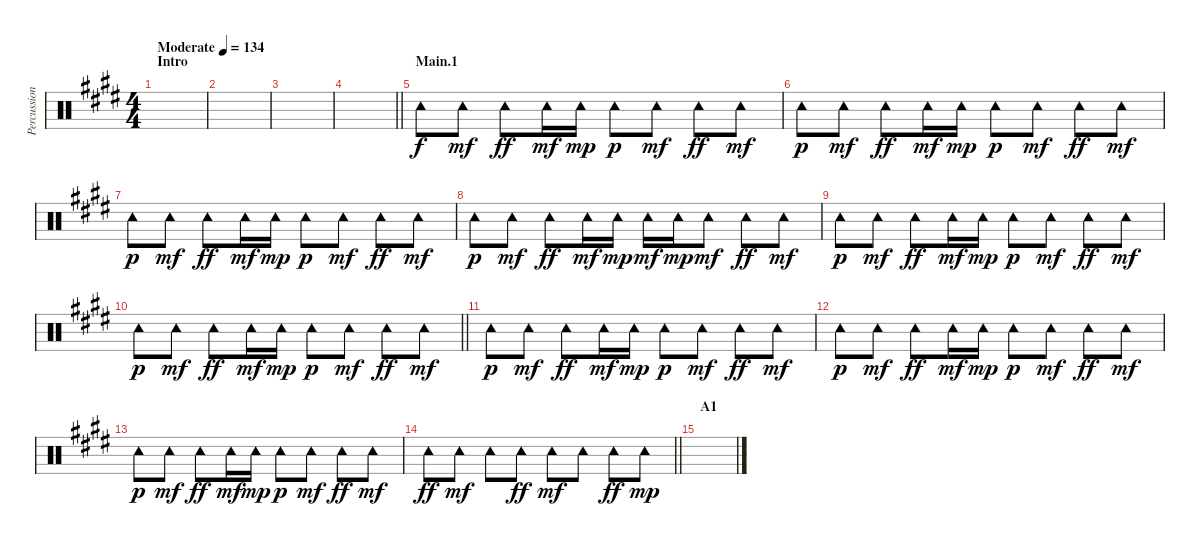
\track ("Percussion" "Percussion") {instrument percussion}
\staff {score}
\articulation defaults
\ts (4 4)
\section ("" "Intro")
\tempo (134 "Moderate")
\clef neutral
\ks e
|
|
|
\barLineRight lightlight
|
\section ("" "Main.1")
"Tambourine (hit)".8 "Tambourine (hit)".8{dy mf} "Tambourine (hit)".8{dy ff} "Tambourine (hit)".16{dy mf} "Tambourine (hit)".16{dy mp} "Tambourine (hit)".8{dy p} "Tambourine (hit)".8{dy mf} "Tambourine (hit)".8{dy ff} "Tambourine (hit)".8{dy mf} |
"Tambourine (hit)".8{dy p} "Tambourine (hit)".8{dy mf} "Tambourine (hit)".8{dy ff} "Tambourine (hit)".16{dy mf} "Tambourine (hit)".16{dy mp} "Tambourine (hit)".8{dy p} "Tambourine (hit)".8{dy mf} "Tambourine (hit)".8{dy ff} "Tambourine (hit)".8{dy mf} |
"Tambourine (hit)".8{dy p} "Tambourine (hit)".8{dy mf} "Tambourine (hit)".8{dy ff} "Tambourine (hit)".16{dy mf} "Tambourine (hit)".16{dy mp} "Tambourine (hit)".8{dy p} "Tambourine (hit)".8{dy mf} "Tambourine (hit)".8{dy ff} "Tambourine (hit)".8{dy mf} |
"Tambourine (hit)".8{dy p} "Tambourine (hit)".8{dy mf} "Tambourine (hit)".8{dy ff} "Tambourine (hit)".16{dy mf} "Tambourine (hit)".16{dy mp} "Tambourine (hit)".16{dy mf} "Tambourine (hit)".16{dy mp} "Tambourine (hit)".8{dy mf} "Tambourine (hit)".8{dy ff} "Tambourine (hit)".8{dy mf} |
"Tambourine (hit)".8{dy p} "Tambourine (hit)".8{dy mf} "Tambourine (hit)".8{dy ff} "Tambourine (hit)".16{dy mf} "Tambourine (hit)".16{dy mp} "Tambourine (hit)".8{dy p} "Tambourine (hit)".8{dy mf} "Tambourine (hit)".8{dy ff} "Tambourine (hit)".8{dy mf} |
\barLineRight lightlight "Tambourine (hit)".8{dy p} "Tambourine (hit)".8{dy mf} "Tambourine (hit)".8{dy ff} "Tambourine (hit)".16{dy mf} "Tambourine (hit)".16{dy mp} "Tambourine (hit)".8{dy p} "Tambourine (hit)".8{dy mf} "Tambourine (hit)".8{dy ff} "Tambourine (hit)".8{dy mf}
|
"Tambourine (hit)".8{dy p} "Tambourine (hit)".8{dy mf} "Tambourine (hit)".8{dy ff} "Tambourine (hit)".16{dy mf} "Tambourine (hit)".16{dy mp} "Tambourine (hit)".8{dy p} "Tambourine (hit)".8{dy mf} "Tambourine (hit)".8{dy ff} "Tambourine (hit)".8{dy mf} |
"Tambourine (hit)".8{dy p} "Tambourine (hit)".8{dy mf} "Tambourine (hit)".8{dy ff} "Tambourine (hit)".16{dy mf} "Tambourine (hit)".16{dy mp} "Tambourine (hit)".8{dy p} "Tambourine (hit)".8{dy mf} "Tambourine (hit)".8{dy ff} "Tambourine (hit)".8{dy mf} |
"Tambourine (hit)".8{dy p} "Tambourine (hit)".8{dy mf} "Tambourine (hit)".8{dy ff} "Tambourine (hit)".16{dy mf} "Tambourine (hit)".16{dy mp} "Tambourine (hit)".8{dy p} "Tambourine (hit)".8{dy mf} "Tambourine (hit)".8{dy ff} "Tambourine (hit)".8{dy mf} |
\barLineRight lightlight "Tambourine (hit)".8{dy ff} "Tambourine (hit)".8{dy mf} "Tambourine (hit)".8 "Tambourine (hit)".8{dy ff} "Tambourine (hit)".8{dy mf} "Tambourine (hit)".8 "Tambourine (hit)".8{dy ff} "Tambourine (hit)".8{dy mp}
|
\section ("" "A1")
